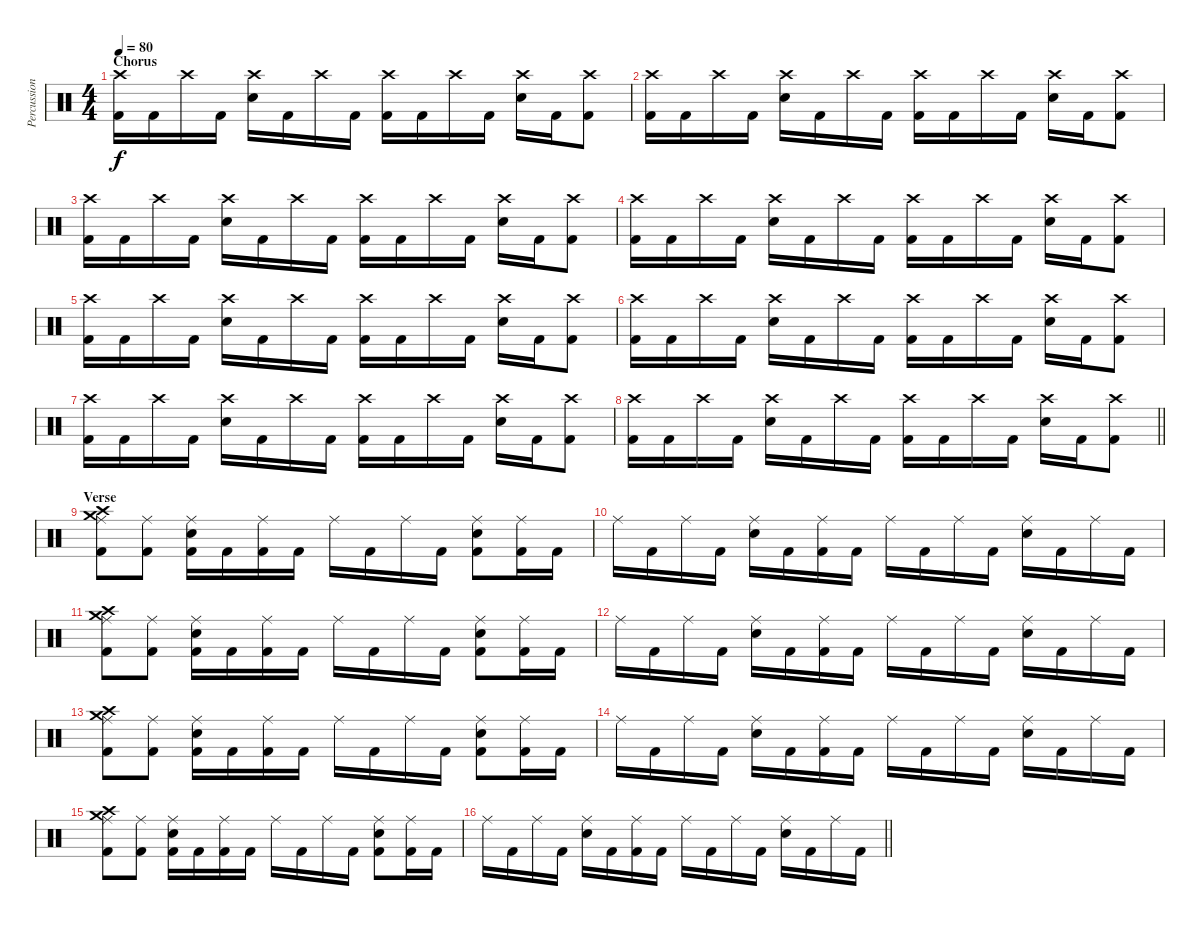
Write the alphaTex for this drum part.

\track ("Percussion" "Percussion") {instrument percussion}
\staff {score}
\articulation defaults
\ts (4 4)
\section ("" "Chorus")
\tempo 80
\clef neutral
\ks c
("Crash high (hit)" "Kick (hit) 2").16{dy f} "Kick (hit) 2".16 "Crash high (hit)".16 "Kick (hit) 2".16 ("Snare (hit) 2" "Crash high (hit)").16 "Kick (hit) 2".16 "Crash high (hit)".16 "Kick (hit) 2".16 ("Kick (hit) 2" "Crash high (hit)").16 "Kick (hit) 2".16 "Crash high (hit)".16 "Kick (hit) 2".16 ("Crash high (hit)" "Snare (hit) 2").16 "Kick (hit) 2".16 ("Crash high (hit)" "Kick (hit) 2").8 |
("Crash high (hit)" "Kick (hit) 2").16 "Kick (hit) 2".16 "Crash high (hit)".16 "Kick (hit) 2".16 ("Snare (hit) 2" "Crash high (hit)").16 "Kick (hit) 2".16 "Crash high (hit)".16 "Kick (hit) 2".16 ("Kick (hit) 2" "Crash high (hit)").16 "Kick (hit) 2".16 "Crash high (hit)".16 "Kick (hit) 2".16 ("Crash high (hit)" "Snare (hit) 2").16 "Kick (hit) 2".16 ("Crash high (hit)" "Kick (hit) 2").8 |
("Crash high (hit)" "Kick (hit) 2").16 "Kick (hit) 2".16 "Crash high (hit)".16 "Kick (hit) 2".16 ("Snare (hit) 2" "Crash high (hit)").16 "Kick (hit) 2".16 "Crash high (hit)".16 "Kick (hit) 2".16 ("Kick (hit) 2" "Crash high (hit)").16 "Kick (hit) 2".16 "Crash high (hit)".16 "Kick (hit) 2".16 ("Crash high (hit)" "Snare (hit) 2").16 "Kick (hit) 2".16 ("Crash high (hit)" "Kick (hit) 2").8 |
("Crash high (hit)" "Kick (hit) 2").16 "Kick (hit) 2".16 "Crash high (hit)".16 "Kick (hit) 2".16 ("Snare (hit) 2" "Crash high (hit)").16 "Kick (hit) 2".16 "Crash high (hit)".16 "Kick (hit) 2".16 ("Kick (hit) 2" "Crash high (hit)").16 "Kick (hit) 2".16 "Crash high (hit)".16 "Kick (hit) 2".16 ("Crash high (hit)" "Snare (hit) 2").16 "Kick (hit) 2".16 ("Crash high (hit)" "Kick (hit) 2").8 |
("Crash high (hit)" "Kick (hit) 2").16 "Kick (hit) 2".16 "Crash high (hit)".16 "Kick (hit) 2".16 ("Snare (hit) 2" "Crash high (hit)").16 "Kick (hit) 2".16 "Crash high (hit)".16 "Kick (hit) 2".16 ("Kick (hit) 2" "Crash high (hit)").16 "Kick (hit) 2".16 "Crash high (hit)".16 "Kick (hit) 2".16 ("Crash high (hit)" "Snare (hit) 2").16 "Kick (hit) 2".16 ("Crash high (hit)" "Kick (hit) 2").8 |
("Crash high (hit)" "Kick (hit) 2").16 "Kick (hit) 2".16 "Crash high (hit)".16 "Kick (hit) 2".16 ("Snare (hit) 2" "Crash high (hit)").16 "Kick (hit) 2".16 "Crash high (hit)".16 "Kick (hit) 2".16 ("Kick (hit) 2" "Crash high (hit)").16 "Kick (hit) 2".16 "Crash high (hit)".16 "Kick (hit) 2".16 ("Crash high (hit)" "Snare (hit) 2").16 "Kick (hit) 2".16 ("Crash high (hit)" "Kick (hit) 2").8 |
("Crash high (hit)" "Kick (hit) 2").16 "Kick (hit) 2".16 "Crash high (hit)".16 "Kick (hit) 2".16 ("Snare (hit) 2" "Crash high (hit)").16 "Kick (hit) 2".16 "Crash high (hit)".16 "Kick (hit) 2".16 ("Kick (hit) 2" "Crash high (hit)").16 "Kick (hit) 2".16 "Crash high (hit)".16 "Kick (hit) 2".16 ("Crash high (hit)" "Snare (hit) 2").16 "Kick (hit) 2".16 ("Crash high (hit)" "Kick (hit) 2").8 |
\barLineRight lightlight
("Crash high (hit)" "Kick (hit) 2").16 "Kick (hit) 2".16 "Crash high (hit)".16 "Kick (hit) 2".16 ("Snare (hit) 2" "Crash high (hit)").16 "Kick (hit) 2".16 "Crash high (hit)".16 "Kick (hit) 2".16 ("Kick (hit) 2" "Crash high (hit)").16 "Kick (hit) 2".16 "Crash high (hit)".16 "Kick (hit) 2".16 ("Crash high (hit)" "Snare (hit) 2").16 "Kick (hit) 2".16 ("Crash high (hit)" "Kick (hit) 2").8 |
\section ("" "Verse")
("Kick (hit) 2" "Ride (middle)" "Crash high (hit)" "Crash medium (hit)").8 ("Kick (hit) 2" "Ride (middle)").8 ("Kick (hit) 2" "Ride (middle)" "Snare (hit) 2").16 "Kick (hit) 2".16 ("Kick (hit) 2" "Ride (middle)").16 "Kick (hit) 2".16 "Ride (middle)".16 "Kick (hit) 2".16 "Ride (middle)".16 "Kick (hit) 2".16 ("Kick (hit) 2" "Ride (middle)" "Snare (hit) 2").8 ("Kick (hit) 2" "Ride (middle)").16 "Kick (hit) 2".16 |
"Ride (middle)".16 "Kick (hit) 2".16 "Ride (middle)".16 "Kick (hit) 2".16 ("Ride (middle)" "Snare (hit) 2").16 "Kick (hit) 2".16 ("Ride (middle)" "Kick (hit) 2").16 "Kick (hit) 2".16 "Ride (middle)".16 "Kick (hit) 2".16 "Ride (middle)".16 "Kick (hit) 2".16 ("Ride (middle)" "Snare (hit) 2").16 "Kick (hit) 2".16 "Ride (middle)".16 "Kick (hit) 2".16 |
("Kick (hit) 2" "Ride (middle)" "Crash high (hit)" "Crash medium (hit)").8 ("Kick (hit) 2" "Ride (middle)").8 ("Kick (hit) 2" "Ride (middle)" "Snare (hit) 2").16 "Kick (hit) 2".16 ("Kick (hit) 2" "Ride (middle)").16 "Kick (hit) 2".16 "Ride (middle)".16 "Kick (hit) 2".16 "Ride (middle)".16 "Kick (hit) 2".16 ("Kick (hit) 2" "Ride (middle)" "Snare (hit) 2").8 ("Kick (hit) 2" "Ride (middle)").16 "Kick (hit) 2".16 |
"Ride (middle)".16 "Kick (hit) 2".16 "Ride (middle)".16 "Kick (hit) 2".16 ("Ride (middle)" "Snare (hit) 2").16 "Kick (hit) 2".16 ("Ride (middle)" "Kick (hit) 2").16 "Kick (hit) 2".16 "Ride (middle)".16 "Kick (hit) 2".16 "Ride (middle)".16 "Kick (hit) 2".16 ("Ride (middle)" "Snare (hit) 2").16 "Kick (hit) 2".16 "Ride (middle)".16 "Kick (hit) 2".16 |
("Kick (hit) 2" "Ride (middle)" "Crash high (hit)" "Crash medium (hit)").8 ("Kick (hit) 2" "Ride (middle)").8 ("Kick (hit) 2" "Ride (middle)" "Snare (hit) 2").16 "Kick (hit) 2".16 ("Kick (hit) 2" "Ride (middle)").16 "Kick (hit) 2".16 "Ride (middle)".16 "Kick (hit) 2".16 "Ride (middle)".16 "Kick (hit) 2".16 ("Kick (hit) 2" "Ride (middle)" "Snare (hit) 2").8 ("Kick (hit) 2" "Ride (middle)").16 "Kick (hit) 2".16 |
"Ride (middle)".16 "Kick (hit) 2".16 "Ride (middle)".16 "Kick (hit) 2".16 ("Ride (middle)" "Snare (hit) 2").16 "Kick (hit) 2".16 ("Ride (middle)" "Kick (hit) 2").16 "Kick (hit) 2".16 "Ride (middle)".16 "Kick (hit) 2".16 "Ride (middle)".16 "Kick (hit) 2".16 ("Ride (middle)" "Snare (hit) 2").16 "Kick (hit) 2".16 "Ride (middle)".16 "Kick (hit) 2".16 |
("Kick (hit) 2" "Ride (middle)" "Crash high (hit)" "Crash medium (hit)").8 ("Kick (hit) 2" "Ride (middle)").8 ("Kick (hit) 2" "Ride (middle)" "Snare (hit) 2").16 "Kick (hit) 2".16 ("Kick (hit) 2" "Ride (middle)").16 "Kick (hit) 2".16 "Ride (middle)".16 "Kick (hit) 2".16 "Ride (middle)".16 "Kick (hit) 2".16 ("Kick (hit) 2" "Ride (middle)" "Snare (hit) 2").8 ("Kick (hit) 2" "Ride (middle)").16 "Kick (hit) 2".16 |
\barLineRight lightlight "Ride (middle)".16 "Kick (hit) 2".16 "Ride (middle)".16 "Kick (hit) 2".16
("Ride (middle)" "Snare (hit) 2").16 "Kick (hit) 2".16 ("Ride (middle)" "Kick (hit) 2").16 "Kick (hit) 2".16 "Ride (middle)".16 "Kick (hit) 2".16 "Ride (middle)".16 "Kick (hit) 2".16 ("Ride (middle)" "Snare (hit) 2").16 "Kick (hit) 2".16 "Ride (middle)".16 "Kick (hit) 2".16
